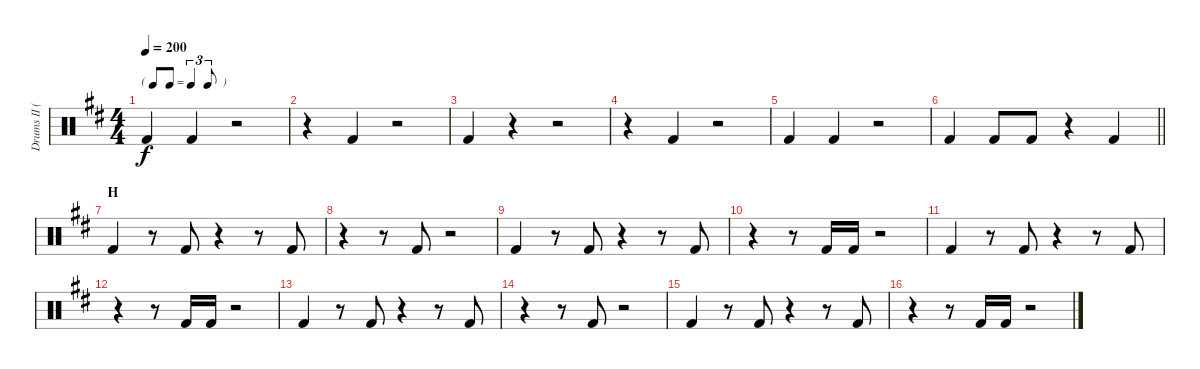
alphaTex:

\track ("Drums II (Ruka)" "Drums II (") {instrument percussion}
\staff {score}
\articulation defaults
\ts (4 4)
\tf triplet8th
\tempo 200
\clef neutral
\ks d "Kick (hit) 2".4{dy f} "Kick (hit) 2".4
r.2 |
r.4 "Kick (hit) 2".4 r.2 |
"Kick (hit) 2".4 r.4 r.2 |
r.4 "Kick (hit) 2".4 r.2 |
"Kick (hit) 2".4 "Kick (hit) 2".4 r.2 |
\barLineRight lightlight "Kick (hit) 2".4 "Kick (hit) 2".8 "Kick (hit) 2".8
r.4 "Kick (hit) 2".4 |
\section ("" "H")
"Kick (hit) 2".4 r.8 "Kick (hit) 2".8 r.4 r.8 "Kick (hit) 2".8 |
r.4 r.8 "Kick (hit) 2".8 r.2 |
"Kick (hit) 2".4 r.8 "Kick (hit) 2".8 r.4 r.8 "Kick (hit) 2".8 |
r.4 r.8 "Kick (hit) 2".16 "Kick (hit) 2".16 r.2 |
"Kick (hit) 2".4 r.8 "Kick (hit) 2".8 r.4 r.8 "Kick (hit) 2".8 |
r.4 r.8 "Kick (hit) 2".16 "Kick (hit) 2".16 r.2 |
"Kick (hit) 2".4 r.8 "Kick (hit) 2".8 r.4 r.8 "Kick (hit) 2".8 |
r.4 r.8 "Kick (hit) 2".8 r.2 |
"Kick (hit) 2".4 r.8 "Kick (hit) 2".8 r.4 r.8 "Kick (hit) 2".8 |
r.4 r.8 "Kick (hit) 2".16 "Kick (hit) 2".16 r.2
